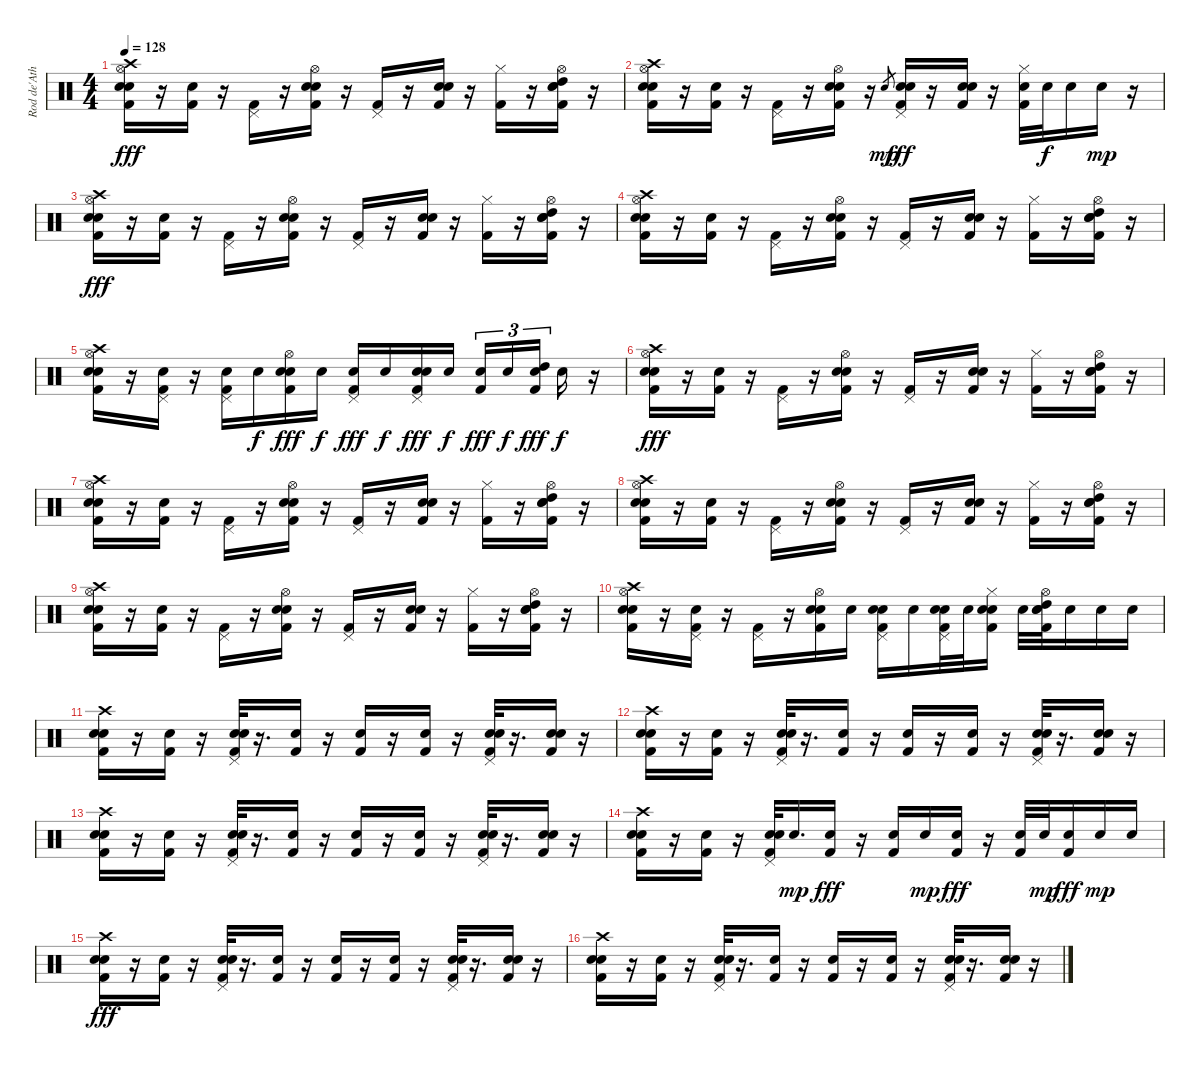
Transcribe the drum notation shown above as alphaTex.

\track ("Rod de'Ath" "Rod de'Ath") {instrument percussion}
\staff {score}
\articulation defaults
\ts (4 4)
\tempo 128
\clef neutral
\ks c
("Crash high (hit)" "Hi-Hat (open)" "Snare (hit) 2" "Snare (hit) 2" "Kick (hit) 2").16{dy fff} r.16 ("Snare (hit) 2" "Kick (hit) 2").16 r.16 ("Pedal Hi-Hat (hit)" "Kick (hit) 2").16 r.16 ("Hi-Hat (open)" "Electric Snare (hit)" "Electric Snare (hit)" "Kick (hit) 2").16 r.16 ("Pedal Hi-Hat (hit)" "Kick (hit) 2").16 r.16 ("Electric Snare (hit)" "Electric Snare (hit)" "Kick (hit) 2").16 r.16 ("Hi-Hat (closed)" "Kick (hit) 2").16 r.16 ("Hi-Hat (open)" "Snare (hit) 2" "Electric Snare (hit)" "High Tom (hit)" "Kick (hit) 2").16 r.16 |
("Crash high (hit)" "Hi-Hat (open)" "Snare (hit) 2" "Snare (hit) 2" "Kick (hit) 2").16 r.16 ("Snare (hit) 2" "Kick (hit) 2").16 r.16 ("Pedal Hi-Hat (hit)" "Kick (hit) 2").16 r.16 ("Hi-Hat (open)" "Electric Snare (hit)" "Electric Snare (hit)" "Kick (hit) 2").16 r.16 "Electric Snare (hit)".8{gr dy mp} ("Pedal Hi-Hat (hit)" "Electric Snare (hit)" "Electric Snare (hit)" "Kick (hit) 2").16{dy fff} r.16 ("Electric Snare (hit)" "Electric Snare (hit)" "Kick (hit) 2").16 r.16 ("Hi-Hat (closed)" "Electric Snare (hit)" "Kick (hit) 2").32 "Electric Snare (hit)".32{dy f} "Electric Snare (hit)".16 "Electric Snare (hit)".16{dy mp} r.16 |
("Crash high (hit)" "Hi-Hat (open)" "Snare (hit) 2" "Snare (hit) 2" "Kick (hit) 2").16{dy fff} r.16 ("Snare (hit) 2" "Kick (hit) 2").16 r.16 ("Pedal Hi-Hat (hit)" "Kick (hit) 2").16 r.16 ("Hi-Hat (open)" "Electric Snare (hit)" "Electric Snare (hit)" "Kick (hit) 2").16 r.16 ("Pedal Hi-Hat (hit)" "Kick (hit) 2").16 r.16 ("Electric Snare (hit)" "Electric Snare (hit)" "Kick (hit) 2").16 r.16 ("Hi-Hat (closed)" "Kick (hit) 2").16 r.16 ("Hi-Hat (open)" "Snare (hit) 2" "Electric Snare (hit)" "High Tom (hit)" "Kick (hit) 2").16 r.16 |
("Crash high (hit)" "Hi-Hat (open)" "Snare (hit) 2" "Snare (hit) 2" "Kick (hit) 2").16 r.16 ("Snare (hit) 2" "Kick (hit) 2").16 r.16 ("Pedal Hi-Hat (hit)" "Kick (hit) 2").16 r.16 ("Hi-Hat (open)" "Electric Snare (hit)" "Electric Snare (hit)" "Kick (hit) 2").16 r.16 ("Pedal Hi-Hat (hit)" "Kick (hit) 2").16 r.16 ("Electric Snare (hit)" "Electric Snare (hit)" "Kick (hit) 2").16 r.16 ("Hi-Hat (closed)" "Kick (hit) 2").16 r.16 ("Hi-Hat (open)" "Snare (hit) 2" "Electric Snare (hit)" "High Tom (hit)" "Kick (hit) 2").16 r.16 |
("Crash high (hit)" "Hi-Hat (open)" "Snare (hit) 2" "Snare (hit) 2" "Kick (hit) 2").16 r.16 ("Pedal Hi-Hat (hit)" "Snare (hit) 2" "Kick (hit) 2").16 r.16 ("Pedal Hi-Hat (hit)" "Electric Snare (hit)" "Kick (hit) 2").16 "Electric Snare (hit)".16{dy f} ("Hi-Hat (open)" "Electric Snare (hit)" "Electric Snare (hit)" "Kick (hit) 2").16{dy fff} "Electric Snare (hit)".16{dy f} ("Pedal Hi-Hat (hit)" "Electric Snare (hit)" "Kick (hit) 2").16{dy fff} "Electric Snare (hit)".16{dy f} ("Pedal Hi-Hat (hit)" "Electric Snare (hit)" "Electric Snare (hit)" "Kick (hit) 2").16{dy fff} "Electric Snare (hit)".16{dy f} ("Electric Snare (hit)" "Kick (hit) 2").16{tu (3 2) dy fff} "Electric Snare (hit)".16{tu (3 2) dy f} ("Electric Snare (hit)" "High Tom (hit)" "Kick (hit) 2").16{tu (3 2) dy fff} "Electric Snare (hit)".16{dy f} r.16 |
("Crash high (hit)" "Hi-Hat (open)" "Snare (hit) 2" "Snare (hit) 2" "Kick (hit) 2").16{dy fff} r.16 ("Snare (hit) 2" "Kick (hit) 2").16 r.16 ("Pedal Hi-Hat (hit)" "Kick (hit) 2").16 r.16 ("Hi-Hat (open)" "Electric Snare (hit)" "Electric Snare (hit)" "Kick (hit) 2").16 r.16 ("Pedal Hi-Hat (hit)" "Kick (hit) 2").16 r.16 ("Electric Snare (hit)" "Electric Snare (hit)" "Kick (hit) 2").16 r.16 ("Hi-Hat (closed)" "Kick (hit) 2").16 r.16 ("Hi-Hat (open)" "Snare (hit) 2" "Electric Snare (hit)" "High Tom (hit)" "Kick (hit) 2").16 r.16 |
("Crash high (hit)" "Hi-Hat (open)" "Snare (hit) 2" "Snare (hit) 2" "Kick (hit) 2").16 r.16 ("Snare (hit) 2" "Kick (hit) 2").16 r.16 ("Pedal Hi-Hat (hit)" "Kick (hit) 2").16 r.16 ("Hi-Hat (open)" "Electric Snare (hit)" "Electric Snare (hit)" "Kick (hit) 2").16 r.16 ("Pedal Hi-Hat (hit)" "Kick (hit) 2").16 r.16 ("Electric Snare (hit)" "Electric Snare (hit)" "Kick (hit) 2").16 r.16 ("Hi-Hat (closed)" "Kick (hit) 2").16 r.16 ("Hi-Hat (open)" "Snare (hit) 2" "Electric Snare (hit)" "High Tom (hit)" "Kick (hit) 2").16 r.16 |
("Crash high (hit)" "Hi-Hat (open)" "Snare (hit) 2" "Snare (hit) 2" "Kick (hit) 2").16 r.16 ("Snare (hit) 2" "Kick (hit) 2").16 r.16 ("Pedal Hi-Hat (hit)" "Kick (hit) 2").16 r.16 ("Hi-Hat (open)" "Electric Snare (hit)" "Electric Snare (hit)" "Kick (hit) 2").16 r.16 ("Pedal Hi-Hat (hit)" "Kick (hit) 2").16 r.16 ("Electric Snare (hit)" "Electric Snare (hit)" "Kick (hit) 2").16 r.16 ("Hi-Hat (closed)" "Kick (hit) 2").16 r.16 ("Hi-Hat (open)" "Snare (hit) 2" "Electric Snare (hit)" "High Tom (hit)" "Kick (hit) 2").16 r.16 |
("Crash high (hit)" "Hi-Hat (open)" "Snare (hit) 2" "Snare (hit) 2" "Kick (hit) 2").16 r.16 ("Snare (hit) 2" "Kick (hit) 2").16 r.16 ("Pedal Hi-Hat (hit)" "Kick (hit) 2").16 r.16 ("Hi-Hat (open)" "Electric Snare (hit)" "Electric Snare (hit)" "Kick (hit) 2").16 r.16 ("Pedal Hi-Hat (hit)" "Kick (hit) 2").16 r.16 ("Electric Snare (hit)" "Electric Snare (hit)" "Kick (hit) 2").16 r.16 ("Hi-Hat (closed)" "Kick (hit) 2").16 r.16 ("Hi-Hat (open)" "Snare (hit) 2" "Electric Snare (hit)" "High Tom (hit)" "Kick (hit) 2").16 r.16 |
("Crash high (hit)" "Hi-Hat (open)" "Snare (hit) 2" "Snare (hit) 2" "Kick (hit) 2").16 r.16 ("Pedal Hi-Hat (hit)" "Snare (hit) 2" "Kick (hit) 2").16 r.16 ("Pedal Hi-Hat (hit)" "Kick (hit) 2").16 r.16 ("Hi-Hat (open)" "Electric Snare (hit)" "Electric Snare (hit)" "Kick (hit) 2").16 "Electric Snare (hit)".16 ("Pedal Hi-Hat (hit)" "Electric Snare (hit)" "Electric Snare (hit)" "Kick (hit) 2").16 "Electric Snare (hit)".16 ("Pedal Hi-Hat (hit)" "Electric Snare (hit)" "Electric Snare (hit)" "Kick (hit) 2").32 "Electric Snare (hit)".32 ("Hi-Hat (closed)" "Electric Snare (hit)" "Electric Snare (hit)" "Kick (hit) 2").16 "Electric Snare (hit)".32 ("Hi-Hat (open)" "Snare (hit) 2" "Electric Snare (hit)" "High Tom (hit)" "Kick (hit) 2").32 "Electric Snare (hit)".16 "Electric Snare (hit)".16 "Electric Snare (hit)".16 |
("Crash high (hit)" "Snare (hit) 2" "Snare (hit) 2" "Kick (hit) 2").16 r.16 ("Snare (hit) 2" "Kick (hit) 2").16 r.16 ("Pedal Hi-Hat (hit)" "Electric Snare (hit)" "Electric Snare (hit)" "Kick (hit) 2").32 r.16{d} ("Snare (hit) 2" "Kick (hit) 2").16 r.16 ("Snare (hit) 2" "Kick (hit) 2").16 r.16 ("Snare (hit) 2" "Kick (hit) 2").16 r.16 ("Pedal Hi-Hat (hit)" "Electric Snare (hit)" "Electric Snare (hit)" "Kick (hit) 2").32 r.16{d} ("Snare (hit) 2" "Snare (hit) 2" "Kick (hit) 2").16 r.16 |
("Crash high (hit)" "Snare (hit) 2" "Snare (hit) 2" "Kick (hit) 2").16 r.16 ("Snare (hit) 2" "Kick (hit) 2").16 r.16 ("Pedal Hi-Hat (hit)" "Electric Snare (hit)" "Electric Snare (hit)" "Kick (hit) 2").32 r.16{d} ("Snare (hit) 2" "Kick (hit) 2").16 r.16 ("Snare (hit) 2" "Kick (hit) 2").16 r.16 ("Snare (hit) 2" "Kick (hit) 2").16 r.16 ("Pedal Hi-Hat (hit)" "Electric Snare (hit)" "Electric Snare (hit)" "Kick (hit) 2").32 r.16{d} ("Snare (hit) 2" "Snare (hit) 2" "Kick (hit) 2").16 r.16 |
("Crash high (hit)" "Snare (hit) 2" "Snare (hit) 2" "Kick (hit) 2").16 r.16 ("Snare (hit) 2" "Kick (hit) 2").16 r.16 ("Pedal Hi-Hat (hit)" "Electric Snare (hit)" "Electric Snare (hit)" "Kick (hit) 2").32 r.16{d} ("Snare (hit) 2" "Kick (hit) 2").16 r.16 ("Snare (hit) 2" "Kick (hit) 2").16 r.16 ("Snare (hit) 2" "Kick (hit) 2").16 r.16 ("Pedal Hi-Hat (hit)" "Electric Snare (hit)" "Electric Snare (hit)" "Kick (hit) 2").32 r.16{d} ("Snare (hit) 2" "Snare (hit) 2" "Kick (hit) 2").16 r.16 |
("Crash high (hit)" "Snare (hit) 2" "Snare (hit) 2" "Kick (hit) 2").16 r.16 ("Snare (hit) 2" "Kick (hit) 2").16 r.16 ("Pedal Hi-Hat (hit)" "Electric Snare (hit)" "Electric Snare (hit)" "Kick (hit) 2").32 "Snare (hit) 2".16{d dy mp} ("Snare (hit) 2" "Kick (hit) 2").16{dy fff} r.16 ("Snare (hit) 2" "Kick (hit) 2").16 "Snare (hit) 2".16{dy mp} ("Snare (hit) 2" "Kick (hit) 2").16{dy fff} r.16 ("Electric Snare (hit)" "Kick (hit) 2").32 "Electric Snare (hit)".32{dy mp} ("Snare (hit) 2" "Kick (hit) 2").16{dy fff} "Snare (hit) 2".16{dy mp} "Snare (hit) 2".16 |
("Crash high (hit)" "Snare (hit) 2" "Snare (hit) 2" "Kick (hit) 2").16{dy fff} r.16 ("Snare (hit) 2" "Kick (hit) 2").16 r.16 ("Pedal Hi-Hat (hit)" "Electric Snare (hit)" "Electric Snare (hit)" "Kick (hit) 2").32 r.16{d} ("Snare (hit) 2" "Kick (hit) 2").16 r.16 ("Snare (hit) 2" "Kick (hit) 2").16 r.16 ("Snare (hit) 2" "Kick (hit) 2").16 r.16 ("Pedal Hi-Hat (hit)" "Electric Snare (hit)" "Electric Snare (hit)" "Kick (hit) 2").32 r.16{d} ("Snare (hit) 2" "Snare (hit) 2" "Kick (hit) 2").16 r.16 |
("Crash high (hit)" "Snare (hit) 2" "Snare (hit) 2" "Kick (hit) 2").16 r.16 ("Snare (hit) 2" "Kick (hit) 2").16 r.16 ("Pedal Hi-Hat (hit)" "Electric Snare (hit)" "Electric Snare (hit)" "Kick (hit) 2").32 r.16{d} ("Snare (hit) 2" "Kick (hit) 2").16 r.16 ("Snare (hit) 2" "Kick (hit) 2").16 r.16 ("Snare (hit) 2" "Kick (hit) 2").16 r.16 ("Pedal Hi-Hat (hit)" "Electric Snare (hit)" "Electric Snare (hit)" "Kick (hit) 2").32 r.16{d} ("Snare (hit) 2" "Snare (hit) 2" "Kick (hit) 2").16 r.16
